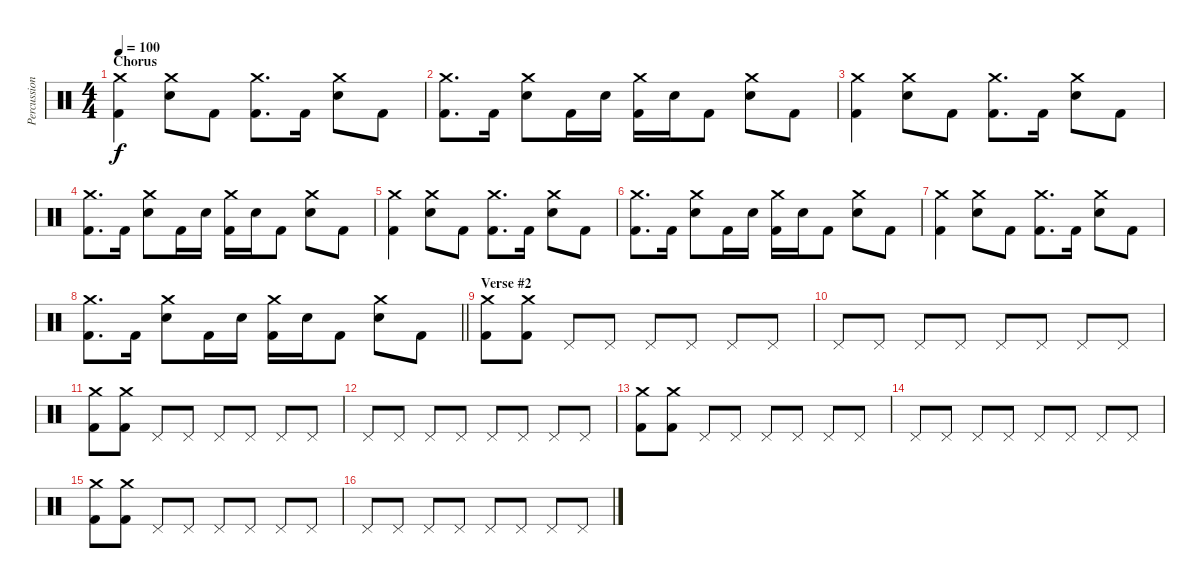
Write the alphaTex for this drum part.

\track ("Percussion" "Percussion") {instrument percussion}
\staff {score}
\articulation defaults
\ts (4 4)
\section ("" "Chorus")
\tempo 100
\clef neutral
\ks c
("Crash medium (hit)" "Kick (hit) 2").4{dy f} ("Crash medium (hit)" "Snare (hit) 2").8 "Kick (hit) 2".8 ("Crash medium (hit)" "Kick (hit) 2").8{d} "Kick (hit) 2".16 ("Crash medium (hit)" "Snare (hit) 2").8 "Kick (hit) 2".8 |
("Crash medium (hit)" "Kick (hit) 2").8{d} "Kick (hit) 2".16 ("Crash medium (hit)" "Snare (hit) 2").8 "Kick (hit) 2".16 "Snare (hit) 2".16 ("Crash medium (hit)" "Kick (hit) 2").16 "Snare (hit) 2".16 "Kick (hit) 2".8 ("Crash medium (hit)" "Snare (hit) 2").8 "Kick (hit) 2".8 |
("Crash medium (hit)" "Kick (hit) 2").4 ("Crash medium (hit)" "Snare (hit) 2").8 "Kick (hit) 2".8 ("Crash medium (hit)" "Kick (hit) 2").8{d} "Kick (hit) 2".16 ("Crash medium (hit)" "Snare (hit) 2").8 "Kick (hit) 2".8 |
("Crash medium (hit)" "Kick (hit) 2").8{d} "Kick (hit) 2".16 ("Crash medium (hit)" "Snare (hit) 2").8 "Kick (hit) 2".16 "Snare (hit) 2".16 ("Crash medium (hit)" "Kick (hit) 2").16 "Snare (hit) 2".16 "Kick (hit) 2".8 ("Crash medium (hit)" "Snare (hit) 2").8 "Kick (hit) 2".8 |
("Crash medium (hit)" "Kick (hit) 2").4 ("Crash medium (hit)" "Snare (hit) 2").8 "Kick (hit) 2".8 ("Crash medium (hit)" "Kick (hit) 2").8{d} "Kick (hit) 2".16 ("Crash medium (hit)" "Snare (hit) 2").8 "Kick (hit) 2".8 |
("Crash medium (hit)" "Kick (hit) 2").8{d} "Kick (hit) 2".16 ("Crash medium (hit)" "Snare (hit) 2").8 "Kick (hit) 2".16 "Snare (hit) 2".16 ("Crash medium (hit)" "Kick (hit) 2").16 "Snare (hit) 2".16 "Kick (hit) 2".8 ("Crash medium (hit)" "Snare (hit) 2").8 "Kick (hit) 2".8 |
("Crash medium (hit)" "Kick (hit) 2").4 ("Crash medium (hit)" "Snare (hit) 2").8 "Kick (hit) 2".8 ("Crash medium (hit)" "Kick (hit) 2").8{d} "Kick (hit) 2".16 ("Crash medium (hit)" "Snare (hit) 2").8 "Kick (hit) 2".8 |
\barLineRight lightlight
("Crash medium (hit)" "Kick (hit) 2").8{d} "Kick (hit) 2".16 ("Crash medium (hit)" "Snare (hit) 2").8 "Kick (hit) 2".16 "Snare (hit) 2".16 ("Crash medium (hit)" "Kick (hit) 2").16 "Snare (hit) 2".16 "Kick (hit) 2".8 ("Crash medium (hit)" "Snare (hit) 2").8 "Kick (hit) 2".8 |
\section ("" "Verse #2")
("Crash medium (hit)" "Kick (hit) 2").8 ("Crash medium (hit)" "Kick (hit) 2").8 "Pedal Hi-Hat (hit)".8 "Pedal Hi-Hat (hit)".8 "Pedal Hi-Hat (hit)".8 "Pedal Hi-Hat (hit)".8 "Pedal Hi-Hat (hit)".8 "Pedal Hi-Hat (hit)".8 |
"Pedal Hi-Hat (hit)".8 "Pedal Hi-Hat (hit)".8 "Pedal Hi-Hat (hit)".8 "Pedal Hi-Hat (hit)".8 "Pedal Hi-Hat (hit)".8 "Pedal Hi-Hat (hit)".8 "Pedal Hi-Hat (hit)".8 "Pedal Hi-Hat (hit)".8 |
("Crash medium (hit)" "Kick (hit) 2").8 ("Crash medium (hit)" "Kick (hit) 2").8 "Pedal Hi-Hat (hit)".8 "Pedal Hi-Hat (hit)".8 "Pedal Hi-Hat (hit)".8 "Pedal Hi-Hat (hit)".8 "Pedal Hi-Hat (hit)".8 "Pedal Hi-Hat (hit)".8 |
"Pedal Hi-Hat (hit)".8 "Pedal Hi-Hat (hit)".8 "Pedal Hi-Hat (hit)".8 "Pedal Hi-Hat (hit)".8 "Pedal Hi-Hat (hit)".8 "Pedal Hi-Hat (hit)".8 "Pedal Hi-Hat (hit)".8 "Pedal Hi-Hat (hit)".8 |
("Crash medium (hit)" "Kick (hit) 2").8 ("Crash medium (hit)" "Kick (hit) 2").8 "Pedal Hi-Hat (hit)".8 "Pedal Hi-Hat (hit)".8 "Pedal Hi-Hat (hit)".8 "Pedal Hi-Hat (hit)".8 "Pedal Hi-Hat (hit)".8 "Pedal Hi-Hat (hit)".8 |
"Pedal Hi-Hat (hit)".8 "Pedal Hi-Hat (hit)".8 "Pedal Hi-Hat (hit)".8 "Pedal Hi-Hat (hit)".8 "Pedal Hi-Hat (hit)".8 "Pedal Hi-Hat (hit)".8 "Pedal Hi-Hat (hit)".8 "Pedal Hi-Hat (hit)".8 |
("Crash medium (hit)" "Kick (hit) 2").8 ("Crash medium (hit)" "Kick (hit) 2").8 "Pedal Hi-Hat (hit)".8 "Pedal Hi-Hat (hit)".8 "Pedal Hi-Hat (hit)".8 "Pedal Hi-Hat (hit)".8 "Pedal Hi-Hat (hit)".8 "Pedal Hi-Hat (hit)".8 |
"Pedal Hi-Hat (hit)".8 "Pedal Hi-Hat (hit)".8 "Pedal Hi-Hat (hit)".8 "Pedal Hi-Hat (hit)".8 "Pedal Hi-Hat (hit)".8 "Pedal Hi-Hat (hit)".8 "Pedal Hi-Hat (hit)".8 "Pedal Hi-Hat (hit)".8
